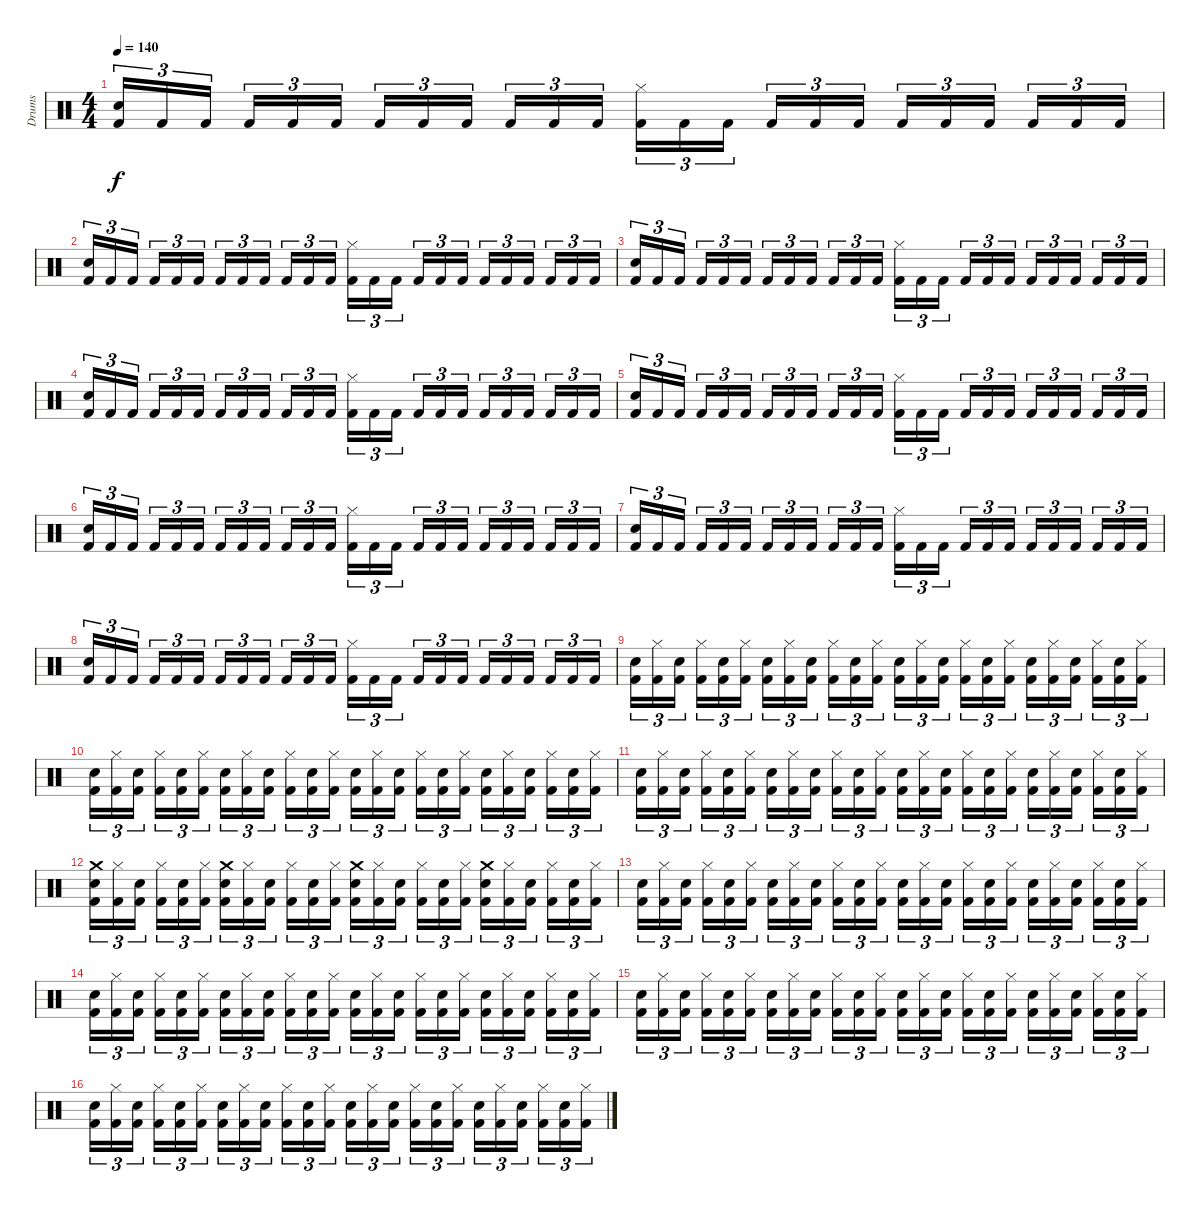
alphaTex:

\track ("Drums" "Drums") {instrument percussion}
\staff {score}
\articulation defaults
\ts (4 4)
\tempo 140
\clef neutral
\ks c
("Snare (hit) 2" "Kick (hit) 2").16{tu (3 2) dy f} "Kick (hit) 2".16{tu (3 2)} "Kick (hit) 2".16{tu (3 2)} "Kick (hit) 2".16{tu (3 2)} "Kick (hit) 2".16{tu (3 2)} "Kick (hit) 2".16{tu (3 2)} "Kick (hit) 2".16{tu (3 2)} "Kick (hit) 2".16{tu (3 2)} "Kick (hit) 2".16{tu (3 2)} "Kick (hit) 2".16{tu (3 2)} "Kick (hit) 2".16{tu (3 2)} "Kick (hit) 2".16{tu (3 2)} ("Hi-Hat (closed)" "Kick (hit) 2").16{tu (3 2)} "Kick (hit) 2".16{tu (3 2)} "Kick (hit) 2".16{tu (3 2)} "Kick (hit) 2".16{tu (3 2)} "Kick (hit) 2".16{tu (3 2)} "Kick (hit) 2".16{tu (3 2)} "Kick (hit) 2".16{tu (3 2)} "Kick (hit) 2".16{tu (3 2)} "Kick (hit) 2".16{tu (3 2)} "Kick (hit) 2".16{tu (3 2)} "Kick (hit) 2".16{tu (3 2)} "Kick (hit) 2".16{tu (3 2)} |
("Snare (hit) 2" "Kick (hit) 2").16{tu (3 2)} "Kick (hit) 2".16{tu (3 2)} "Kick (hit) 2".16{tu (3 2)} "Kick (hit) 2".16{tu (3 2)} "Kick (hit) 2".16{tu (3 2)} "Kick (hit) 2".16{tu (3 2)} "Kick (hit) 2".16{tu (3 2)} "Kick (hit) 2".16{tu (3 2)} "Kick (hit) 2".16{tu (3 2)} "Kick (hit) 2".16{tu (3 2)} "Kick (hit) 2".16{tu (3 2)} "Kick (hit) 2".16{tu (3 2)} ("Hi-Hat (closed)" "Kick (hit) 2").16{tu (3 2)} "Kick (hit) 2".16{tu (3 2)} "Kick (hit) 2".16{tu (3 2)} "Kick (hit) 2".16{tu (3 2)} "Kick (hit) 2".16{tu (3 2)} "Kick (hit) 2".16{tu (3 2)} "Kick (hit) 2".16{tu (3 2)} "Kick (hit) 2".16{tu (3 2)} "Kick (hit) 2".16{tu (3 2)} "Kick (hit) 2".16{tu (3 2)} "Kick (hit) 2".16{tu (3 2)} "Kick (hit) 2".16{tu (3 2)} |
("Snare (hit) 2" "Kick (hit) 2").16{tu (3 2)} "Kick (hit) 2".16{tu (3 2)} "Kick (hit) 2".16{tu (3 2)} "Kick (hit) 2".16{tu (3 2)} "Kick (hit) 2".16{tu (3 2)} "Kick (hit) 2".16{tu (3 2)} "Kick (hit) 2".16{tu (3 2)} "Kick (hit) 2".16{tu (3 2)} "Kick (hit) 2".16{tu (3 2)} "Kick (hit) 2".16{tu (3 2)} "Kick (hit) 2".16{tu (3 2)} "Kick (hit) 2".16{tu (3 2)} ("Hi-Hat (closed)" "Kick (hit) 2").16{tu (3 2)} "Kick (hit) 2".16{tu (3 2)} "Kick (hit) 2".16{tu (3 2)} "Kick (hit) 2".16{tu (3 2)} "Kick (hit) 2".16{tu (3 2)} "Kick (hit) 2".16{tu (3 2)} "Kick (hit) 2".16{tu (3 2)} "Kick (hit) 2".16{tu (3 2)} "Kick (hit) 2".16{tu (3 2)} "Kick (hit) 2".16{tu (3 2)} "Kick (hit) 2".16{tu (3 2)} "Kick (hit) 2".16{tu (3 2)} |
("Snare (hit) 2" "Kick (hit) 2").16{tu (3 2)} "Kick (hit) 2".16{tu (3 2)} "Kick (hit) 2".16{tu (3 2)} "Kick (hit) 2".16{tu (3 2)} "Kick (hit) 2".16{tu (3 2)} "Kick (hit) 2".16{tu (3 2)} "Kick (hit) 2".16{tu (3 2)} "Kick (hit) 2".16{tu (3 2)} "Kick (hit) 2".16{tu (3 2)} "Kick (hit) 2".16{tu (3 2)} "Kick (hit) 2".16{tu (3 2)} "Kick (hit) 2".16{tu (3 2)} ("Hi-Hat (closed)" "Kick (hit) 2").16{tu (3 2)} "Kick (hit) 2".16{tu (3 2)} "Kick (hit) 2".16{tu (3 2)} "Kick (hit) 2".16{tu (3 2)} "Kick (hit) 2".16{tu (3 2)} "Kick (hit) 2".16{tu (3 2)} "Kick (hit) 2".16{tu (3 2)} "Kick (hit) 2".16{tu (3 2)} "Kick (hit) 2".16{tu (3 2)} "Kick (hit) 2".16{tu (3 2)} "Kick (hit) 2".16{tu (3 2)} "Kick (hit) 2".16{tu (3 2)} |
("Snare (hit) 2" "Kick (hit) 2").16{tu (3 2)} "Kick (hit) 2".16{tu (3 2)} "Kick (hit) 2".16{tu (3 2)} "Kick (hit) 2".16{tu (3 2)} "Kick (hit) 2".16{tu (3 2)} "Kick (hit) 2".16{tu (3 2)} "Kick (hit) 2".16{tu (3 2)} "Kick (hit) 2".16{tu (3 2)} "Kick (hit) 2".16{tu (3 2)} "Kick (hit) 2".16{tu (3 2)} "Kick (hit) 2".16{tu (3 2)} "Kick (hit) 2".16{tu (3 2)} ("Hi-Hat (closed)" "Kick (hit) 2").16{tu (3 2)} "Kick (hit) 2".16{tu (3 2)} "Kick (hit) 2".16{tu (3 2)} "Kick (hit) 2".16{tu (3 2)} "Kick (hit) 2".16{tu (3 2)} "Kick (hit) 2".16{tu (3 2)} "Kick (hit) 2".16{tu (3 2)} "Kick (hit) 2".16{tu (3 2)} "Kick (hit) 2".16{tu (3 2)} "Kick (hit) 2".16{tu (3 2)} "Kick (hit) 2".16{tu (3 2)} "Kick (hit) 2".16{tu (3 2)} |
("Snare (hit) 2" "Kick (hit) 2").16{tu (3 2)} "Kick (hit) 2".16{tu (3 2)} "Kick (hit) 2".16{tu (3 2)} "Kick (hit) 2".16{tu (3 2)} "Kick (hit) 2".16{tu (3 2)} "Kick (hit) 2".16{tu (3 2)} "Kick (hit) 2".16{tu (3 2)} "Kick (hit) 2".16{tu (3 2)} "Kick (hit) 2".16{tu (3 2)} "Kick (hit) 2".16{tu (3 2)} "Kick (hit) 2".16{tu (3 2)} "Kick (hit) 2".16{tu (3 2)} ("Hi-Hat (closed)" "Kick (hit) 2").16{tu (3 2)} "Kick (hit) 2".16{tu (3 2)} "Kick (hit) 2".16{tu (3 2)} "Kick (hit) 2".16{tu (3 2)} "Kick (hit) 2".16{tu (3 2)} "Kick (hit) 2".16{tu (3 2)} "Kick (hit) 2".16{tu (3 2)} "Kick (hit) 2".16{tu (3 2)} "Kick (hit) 2".16{tu (3 2)} "Kick (hit) 2".16{tu (3 2)} "Kick (hit) 2".16{tu (3 2)} "Kick (hit) 2".16{tu (3 2)} |
("Snare (hit) 2" "Kick (hit) 2").16{tu (3 2)} "Kick (hit) 2".16{tu (3 2)} "Kick (hit) 2".16{tu (3 2)} "Kick (hit) 2".16{tu (3 2)} "Kick (hit) 2".16{tu (3 2)} "Kick (hit) 2".16{tu (3 2)} "Kick (hit) 2".16{tu (3 2)} "Kick (hit) 2".16{tu (3 2)} "Kick (hit) 2".16{tu (3 2)} "Kick (hit) 2".16{tu (3 2)} "Kick (hit) 2".16{tu (3 2)} "Kick (hit) 2".16{tu (3 2)} ("Hi-Hat (closed)" "Kick (hit) 2").16{tu (3 2)} "Kick (hit) 2".16{tu (3 2)} "Kick (hit) 2".16{tu (3 2)} "Kick (hit) 2".16{tu (3 2)} "Kick (hit) 2".16{tu (3 2)} "Kick (hit) 2".16{tu (3 2)} "Kick (hit) 2".16{tu (3 2)} "Kick (hit) 2".16{tu (3 2)} "Kick (hit) 2".16{tu (3 2)} "Kick (hit) 2".16{tu (3 2)} "Kick (hit) 2".16{tu (3 2)} "Kick (hit) 2".16{tu (3 2)} |
("Snare (hit) 2" "Kick (hit) 2").16{tu (3 2)} "Kick (hit) 2".16{tu (3 2)} "Kick (hit) 2".16{tu (3 2)} "Kick (hit) 2".16{tu (3 2)} "Kick (hit) 2".16{tu (3 2)} "Kick (hit) 2".16{tu (3 2)} "Kick (hit) 2".16{tu (3 2)} "Kick (hit) 2".16{tu (3 2)} "Kick (hit) 2".16{tu (3 2)} "Kick (hit) 2".16{tu (3 2)} "Kick (hit) 2".16{tu (3 2)} "Kick (hit) 2".16{tu (3 2)} ("Hi-Hat (closed)" "Kick (hit) 2").16{tu (3 2)} "Kick (hit) 2".16{tu (3 2)} "Kick (hit) 2".16{tu (3 2)} "Kick (hit) 2".16{tu (3 2)} "Kick (hit) 2".16{tu (3 2)} "Kick (hit) 2".16{tu (3 2)} "Kick (hit) 2".16{tu (3 2)} "Kick (hit) 2".16{tu (3 2)} "Kick (hit) 2".16{tu (3 2)} "Kick (hit) 2".16{tu (3 2)} "Kick (hit) 2".16{tu (3 2)} "Kick (hit) 2".16{tu (3 2)} |
("Snare (hit) 2" "Kick (hit) 2").16{tu (3 2)} ("Hi-Hat (closed)" "Kick (hit) 2").16{tu (3 2)} ("Snare (hit) 2" "Kick (hit) 2").16{tu (3 2)} ("Hi-Hat (closed)" "Kick (hit) 2").16{tu (3 2)} ("Snare (hit) 2" "Kick (hit) 2").16{tu (3 2)} ("Hi-Hat (closed)" "Kick (hit) 2").16{tu (3 2)} ("Snare (hit) 2" "Kick (hit) 2").16{tu (3 2)} ("Hi-Hat (closed)" "Kick (hit) 2").16{tu (3 2)} ("Snare (hit) 2" "Kick (hit) 2").16{tu (3 2)} ("Hi-Hat (closed)" "Kick (hit) 2").16{tu (3 2)} ("Snare (hit) 2" "Kick (hit) 2").16{tu (3 2)} ("Hi-Hat (closed)" "Kick (hit) 2").16{tu (3 2)} ("Snare (hit) 2" "Kick (hit) 2").16{tu (3 2)} ("Hi-Hat (closed)" "Kick (hit) 2").16{tu (3 2)} ("Snare (hit) 2" "Kick (hit) 2").16{tu (3 2)} ("Hi-Hat (closed)" "Kick (hit) 2").16{tu (3 2)} ("Snare (hit) 2" "Kick (hit) 2").16{tu (3 2)} ("Hi-Hat (closed)" "Kick (hit) 2").16{tu (3 2)} ("Snare (hit) 2" "Kick (hit) 2").16{tu (3 2)} ("Hi-Hat (closed)" "Kick (hit) 2").16{tu (3 2)} ("Snare (hit) 2" "Kick (hit) 2").16{tu (3 2)} ("Hi-Hat (closed)" "Kick (hit) 2").16{tu (3 2)} ("Snare (hit) 2" "Kick (hit) 2").16{tu (3 2)} ("Hi-Hat (closed)" "Kick (hit) 2").16{tu (3 2)} |
("Snare (hit) 2" "Kick (hit) 2").16{tu (3 2)} ("Hi-Hat (closed)" "Kick (hit) 2").16{tu (3 2)} ("Snare (hit) 2" "Kick (hit) 2").16{tu (3 2)} ("Hi-Hat (closed)" "Kick (hit) 2").16{tu (3 2)} ("Snare (hit) 2" "Kick (hit) 2").16{tu (3 2)} ("Hi-Hat (closed)" "Kick (hit) 2").16{tu (3 2)} ("Snare (hit) 2" "Kick (hit) 2").16{tu (3 2)} ("Hi-Hat (closed)" "Kick (hit) 2").16{tu (3 2)} ("Snare (hit) 2" "Kick (hit) 2").16{tu (3 2)} ("Hi-Hat (closed)" "Kick (hit) 2").16{tu (3 2)} ("Snare (hit) 2" "Kick (hit) 2").16{tu (3 2)} ("Hi-Hat (closed)" "Kick (hit) 2").16{tu (3 2)} ("Snare (hit) 2" "Kick (hit) 2").16{tu (3 2)} ("Hi-Hat (closed)" "Kick (hit) 2").16{tu (3 2)} ("Snare (hit) 2" "Kick (hit) 2").16{tu (3 2)} ("Hi-Hat (closed)" "Kick (hit) 2").16{tu (3 2)} ("Snare (hit) 2" "Kick (hit) 2").16{tu (3 2)} ("Hi-Hat (closed)" "Kick (hit) 2").16{tu (3 2)} ("Snare (hit) 2" "Kick (hit) 2").16{tu (3 2)} ("Hi-Hat (closed)" "Kick (hit) 2").16{tu (3 2)} ("Snare (hit) 2" "Kick (hit) 2").16{tu (3 2)} ("Hi-Hat (closed)" "Kick (hit) 2").16{tu (3 2)} ("Snare (hit) 2" "Kick (hit) 2").16{tu (3 2)} ("Hi-Hat (closed)" "Kick (hit) 2").16{tu (3 2)} |
("Snare (hit) 2" "Kick (hit) 2").16{tu (3 2)} ("Hi-Hat (closed)" "Kick (hit) 2").16{tu (3 2)} ("Snare (hit) 2" "Kick (hit) 2").16{tu (3 2)} ("Hi-Hat (closed)" "Kick (hit) 2").16{tu (3 2)} ("Snare (hit) 2" "Kick (hit) 2").16{tu (3 2)} ("Hi-Hat (closed)" "Kick (hit) 2").16{tu (3 2)} ("Snare (hit) 2" "Kick (hit) 2").16{tu (3 2)} ("Hi-Hat (closed)" "Kick (hit) 2").16{tu (3 2)} ("Snare (hit) 2" "Kick (hit) 2").16{tu (3 2)} ("Hi-Hat (closed)" "Kick (hit) 2").16{tu (3 2)} ("Snare (hit) 2" "Kick (hit) 2").16{tu (3 2)} ("Hi-Hat (closed)" "Kick (hit) 2").16{tu (3 2)} ("Snare (hit) 2" "Kick (hit) 2").16{tu (3 2)} ("Hi-Hat (closed)" "Kick (hit) 2").16{tu (3 2)} ("Snare (hit) 2" "Kick (hit) 2").16{tu (3 2)} ("Hi-Hat (closed)" "Kick (hit) 2").16{tu (3 2)} ("Snare (hit) 2" "Kick (hit) 2").16{tu (3 2)} ("Hi-Hat (closed)" "Kick (hit) 2").16{tu (3 2)} ("Snare (hit) 2" "Kick (hit) 2").16{tu (3 2)} ("Hi-Hat (closed)" "Kick (hit) 2").16{tu (3 2)} ("Snare (hit) 2" "Kick (hit) 2").16{tu (3 2)} ("Hi-Hat (closed)" "Kick (hit) 2").16{tu (3 2)} ("Snare (hit) 2" "Kick (hit) 2").16{tu (3 2)} ("Hi-Hat (closed)" "Kick (hit) 2").16{tu (3 2)} |
("Snare (hit) 2" "Crash medium (hit)" "Kick (hit) 2").16{tu (3 2)} ("Hi-Hat (closed)" "Kick (hit) 2").16{tu (3 2)} ("Snare (hit) 2" "Kick (hit) 2").16{tu (3 2)} ("Hi-Hat (closed)" "Kick (hit) 2").16{tu (3 2)} ("Snare (hit) 2" "Kick (hit) 2").16{tu (3 2)} ("Hi-Hat (closed)" "Kick (hit) 2").16{tu (3 2)} ("Snare (hit) 2" "Crash medium (hit)" "Kick (hit) 2").16{tu (3 2)} ("Hi-Hat (closed)" "Kick (hit) 2").16{tu (3 2)} ("Snare (hit) 2" "Kick (hit) 2").16{tu (3 2)} ("Hi-Hat (closed)" "Kick (hit) 2").16{tu (3 2)} ("Snare (hit) 2" "Kick (hit) 2").16{tu (3 2)} ("Hi-Hat (closed)" "Kick (hit) 2").16{tu (3 2)} ("Snare (hit) 2" "Crash medium (hit)" "Kick (hit) 2").16{tu (3 2)} ("Hi-Hat (closed)" "Kick (hit) 2").16{tu (3 2)} ("Snare (hit) 2" "Kick (hit) 2").16{tu (3 2)} ("Hi-Hat (closed)" "Kick (hit) 2").16{tu (3 2)} ("Snare (hit) 2" "Kick (hit) 2").16{tu (3 2)} ("Hi-Hat (closed)" "Kick (hit) 2").16{tu (3 2)} ("Snare (hit) 2" "Crash medium (hit)" "Kick (hit) 2").16{tu (3 2)} ("Hi-Hat (closed)" "Kick (hit) 2").16{tu (3 2)} ("Snare (hit) 2" "Kick (hit) 2").16{tu (3 2)} ("Hi-Hat (closed)" "Kick (hit) 2").16{tu (3 2)} ("Snare (hit) 2" "Kick (hit) 2").16{tu (3 2)} ("Hi-Hat (closed)" "Kick (hit) 2").16{tu (3 2)} |
("Snare (hit) 2" "Kick (hit) 2").16{tu (3 2)} ("Hi-Hat (closed)" "Kick (hit) 2").16{tu (3 2)} ("Snare (hit) 2" "Kick (hit) 2").16{tu (3 2)} ("Hi-Hat (closed)" "Kick (hit) 2").16{tu (3 2)} ("Snare (hit) 2" "Kick (hit) 2").16{tu (3 2)} ("Hi-Hat (closed)" "Kick (hit) 2").16{tu (3 2)} ("Snare (hit) 2" "Kick (hit) 2").16{tu (3 2)} ("Hi-Hat (closed)" "Kick (hit) 2").16{tu (3 2)} ("Snare (hit) 2" "Kick (hit) 2").16{tu (3 2)} ("Hi-Hat (closed)" "Kick (hit) 2").16{tu (3 2)} ("Snare (hit) 2" "Kick (hit) 2").16{tu (3 2)} ("Hi-Hat (closed)" "Kick (hit) 2").16{tu (3 2)} ("Snare (hit) 2" "Kick (hit) 2").16{tu (3 2)} ("Hi-Hat (closed)" "Kick (hit) 2").16{tu (3 2)} ("Snare (hit) 2" "Kick (hit) 2").16{tu (3 2)} ("Hi-Hat (closed)" "Kick (hit) 2").16{tu (3 2)} ("Snare (hit) 2" "Kick (hit) 2").16{tu (3 2)} ("Hi-Hat (closed)" "Kick (hit) 2").16{tu (3 2)} ("Snare (hit) 2" "Kick (hit) 2").16{tu (3 2)} ("Hi-Hat (closed)" "Kick (hit) 2").16{tu (3 2)} ("Snare (hit) 2" "Kick (hit) 2").16{tu (3 2)} ("Hi-Hat (closed)" "Kick (hit) 2").16{tu (3 2)} ("Snare (hit) 2" "Kick (hit) 2").16{tu (3 2)} ("Hi-Hat (closed)" "Kick (hit) 2").16{tu (3 2)} |
("Snare (hit) 2" "Kick (hit) 2").16{tu (3 2)} ("Hi-Hat (closed)" "Kick (hit) 2").16{tu (3 2)} ("Snare (hit) 2" "Kick (hit) 2").16{tu (3 2)} ("Hi-Hat (closed)" "Kick (hit) 2").16{tu (3 2)} ("Snare (hit) 2" "Kick (hit) 2").16{tu (3 2)} ("Hi-Hat (closed)" "Kick (hit) 2").16{tu (3 2)} ("Snare (hit) 2" "Kick (hit) 2").16{tu (3 2)} ("Hi-Hat (closed)" "Kick (hit) 2").16{tu (3 2)} ("Snare (hit) 2" "Kick (hit) 2").16{tu (3 2)} ("Hi-Hat (closed)" "Kick (hit) 2").16{tu (3 2)} ("Snare (hit) 2" "Kick (hit) 2").16{tu (3 2)} ("Hi-Hat (closed)" "Kick (hit) 2").16{tu (3 2)} ("Snare (hit) 2" "Kick (hit) 2").16{tu (3 2)} ("Hi-Hat (closed)" "Kick (hit) 2").16{tu (3 2)} ("Snare (hit) 2" "Kick (hit) 2").16{tu (3 2)} ("Hi-Hat (closed)" "Kick (hit) 2").16{tu (3 2)} ("Snare (hit) 2" "Kick (hit) 2").16{tu (3 2)} ("Hi-Hat (closed)" "Kick (hit) 2").16{tu (3 2)} ("Snare (hit) 2" "Kick (hit) 2").16{tu (3 2)} ("Hi-Hat (closed)" "Kick (hit) 2").16{tu (3 2)} ("Snare (hit) 2" "Kick (hit) 2").16{tu (3 2)} ("Hi-Hat (closed)" "Kick (hit) 2").16{tu (3 2)} ("Snare (hit) 2" "Kick (hit) 2").16{tu (3 2)} ("Hi-Hat (closed)" "Kick (hit) 2").16{tu (3 2)} |
("Snare (hit) 2" "Kick (hit) 2").16{tu (3 2)} ("Hi-Hat (closed)" "Kick (hit) 2").16{tu (3 2)} ("Snare (hit) 2" "Kick (hit) 2").16{tu (3 2)} ("Hi-Hat (closed)" "Kick (hit) 2").16{tu (3 2)} ("Snare (hit) 2" "Kick (hit) 2").16{tu (3 2)} ("Hi-Hat (closed)" "Kick (hit) 2").16{tu (3 2)} ("Snare (hit) 2" "Kick (hit) 2").16{tu (3 2)} ("Hi-Hat (closed)" "Kick (hit) 2").16{tu (3 2)} ("Snare (hit) 2" "Kick (hit) 2").16{tu (3 2)} ("Hi-Hat (closed)" "Kick (hit) 2").16{tu (3 2)} ("Snare (hit) 2" "Kick (hit) 2").16{tu (3 2)} ("Hi-Hat (closed)" "Kick (hit) 2").16{tu (3 2)} ("Snare (hit) 2" "Kick (hit) 2").16{tu (3 2)} ("Hi-Hat (closed)" "Kick (hit) 2").16{tu (3 2)} ("Snare (hit) 2" "Kick (hit) 2").16{tu (3 2)} ("Hi-Hat (closed)" "Kick (hit) 2").16{tu (3 2)} ("Snare (hit) 2" "Kick (hit) 2").16{tu (3 2)} ("Hi-Hat (closed)" "Kick (hit) 2").16{tu (3 2)} ("Snare (hit) 2" "Kick (hit) 2").16{tu (3 2)} ("Hi-Hat (closed)" "Kick (hit) 2").16{tu (3 2)} ("Snare (hit) 2" "Kick (hit) 2").16{tu (3 2)} ("Hi-Hat (closed)" "Kick (hit) 2").16{tu (3 2)} ("Snare (hit) 2" "Kick (hit) 2").16{tu (3 2)} ("Hi-Hat (closed)" "Kick (hit) 2").16{tu (3 2)} |
("Snare (hit) 2" "Kick (hit) 2").16{tu (3 2)} ("Hi-Hat (closed)" "Kick (hit) 2").16{tu (3 2)} ("Snare (hit) 2" "Kick (hit) 2").16{tu (3 2)} ("Hi-Hat (closed)" "Kick (hit) 2").16{tu (3 2)} ("Snare (hit) 2" "Kick (hit) 2").16{tu (3 2)} ("Hi-Hat (closed)" "Kick (hit) 2").16{tu (3 2)} ("Snare (hit) 2" "Kick (hit) 2").16{tu (3 2)} ("Hi-Hat (closed)" "Kick (hit) 2").16{tu (3 2)} ("Snare (hit) 2" "Kick (hit) 2").16{tu (3 2)} ("Hi-Hat (closed)" "Kick (hit) 2").16{tu (3 2)} ("Snare (hit) 2" "Kick (hit) 2").16{tu (3 2)} ("Hi-Hat (closed)" "Kick (hit) 2").16{tu (3 2)} ("Snare (hit) 2" "Kick (hit) 2").16{tu (3 2)} ("Hi-Hat (closed)" "Kick (hit) 2").16{tu (3 2)} ("Snare (hit) 2" "Kick (hit) 2").16{tu (3 2)} ("Hi-Hat (closed)" "Kick (hit) 2").16{tu (3 2)} ("Snare (hit) 2" "Kick (hit) 2").16{tu (3 2)} ("Hi-Hat (closed)" "Kick (hit) 2").16{tu (3 2)} ("Snare (hit) 2" "Kick (hit) 2").16{tu (3 2)} ("Hi-Hat (closed)" "Kick (hit) 2").16{tu (3 2)} ("Snare (hit) 2" "Kick (hit) 2").16{tu (3 2)} ("Hi-Hat (closed)" "Kick (hit) 2").16{tu (3 2)} ("Snare (hit) 2" "Kick (hit) 2").16{tu (3 2)} ("Hi-Hat (closed)" "Kick (hit) 2").16{tu (3 2)}
